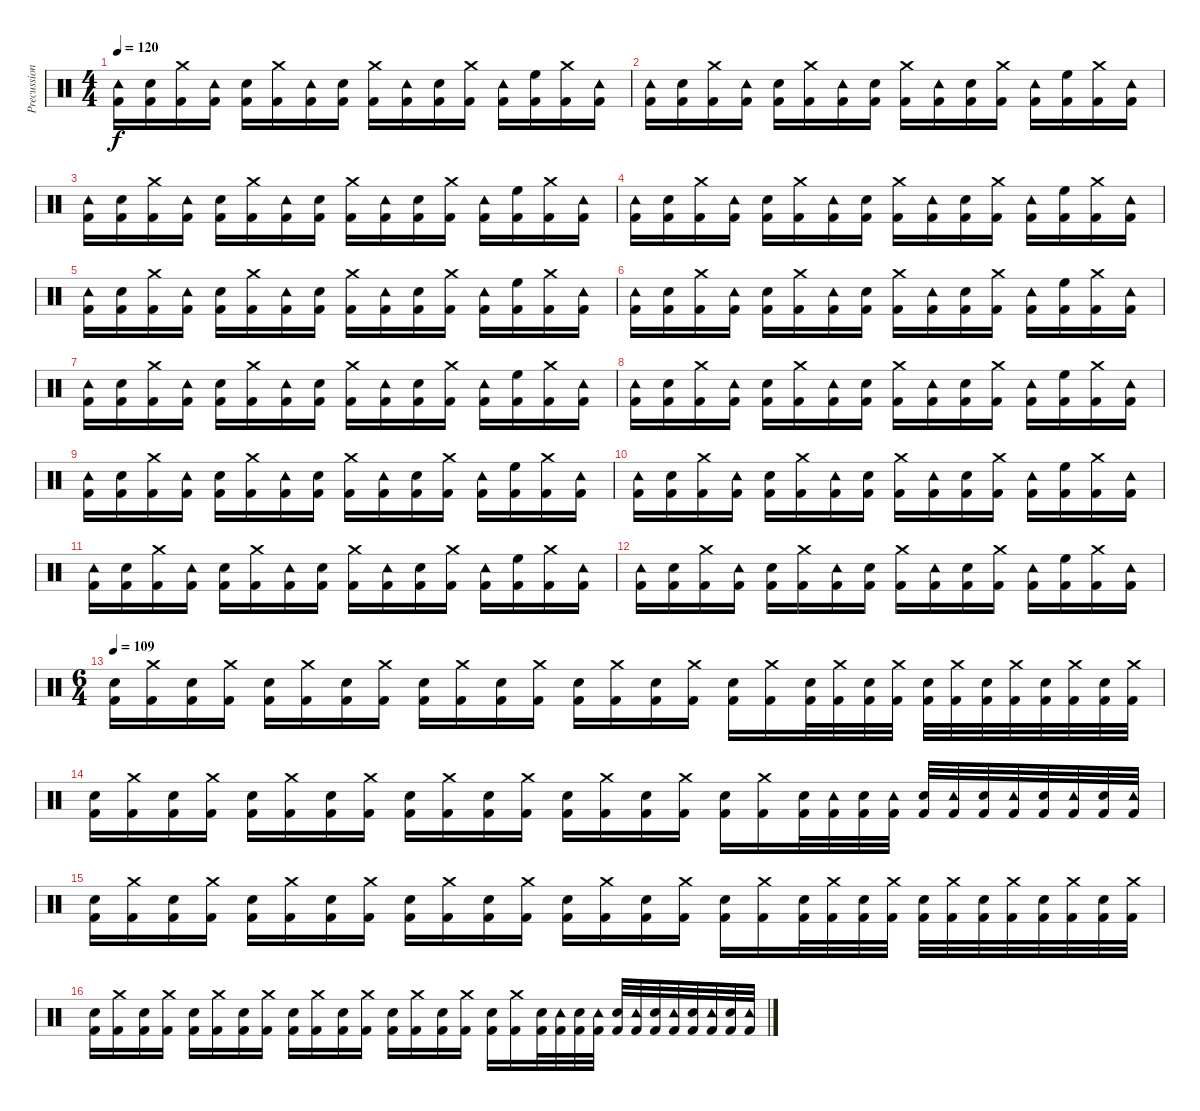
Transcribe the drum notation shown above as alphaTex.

\track ("Precussion" "Precussion") {instrument percussion}
\staff {score}
\articulation defaults
\ts (4 4)
\tempo 120
\clef neutral
\ks c
("Tambourine (hit)" "Kick (hit) 2").16{dy f} ("Electric Snare (hit)" "Kick (hit) 2").16 ("Crash medium (hit)" "Kick (hit) 2").16 ("Tambourine (hit)" "Kick (hit) 2").16 ("Electric Snare (hit)" "Kick (hit) 2").16 ("Crash medium (hit)" "Kick (hit) 2").16 ("Tambourine (hit)" "Kick (hit) 2").16 ("Electric Snare (hit)" "Kick (hit) 2").16 ("Crash medium (hit)" "Kick (hit) 2").16 ("Tambourine (hit)" "Kick (hit) 2").16 ("Electric Snare (hit)" "Kick (hit) 2").16 ("Crash medium (hit)" "Kick (hit) 2").16 ("Tambourine (hit)" "Kick (hit) 2").16 ("High Floor Tom (hit)" "Kick (hit) 2").16 ("Crash medium (hit)" "Kick (hit) 2").16 ("Tambourine (hit)" "Kick (hit) 2").16 |
("Tambourine (hit)" "Kick (hit) 2").16 ("Electric Snare (hit)" "Kick (hit) 2").16 ("Crash medium (hit)" "Kick (hit) 2").16 ("Tambourine (hit)" "Kick (hit) 2").16 ("Electric Snare (hit)" "Kick (hit) 2").16 ("Crash medium (hit)" "Kick (hit) 2").16 ("Tambourine (hit)" "Kick (hit) 2").16 ("Electric Snare (hit)" "Kick (hit) 2").16 ("Crash medium (hit)" "Kick (hit) 2").16 ("Tambourine (hit)" "Kick (hit) 2").16 ("Electric Snare (hit)" "Kick (hit) 2").16 ("Crash medium (hit)" "Kick (hit) 2").16 ("Tambourine (hit)" "Kick (hit) 2").16 ("High Floor Tom (hit)" "Kick (hit) 2").16 ("Crash medium (hit)" "Kick (hit) 2").16 ("Tambourine (hit)" "Kick (hit) 2").16 |
("Tambourine (hit)" "Kick (hit) 2").16 ("Electric Snare (hit)" "Kick (hit) 2").16 ("Crash medium (hit)" "Kick (hit) 2").16 ("Tambourine (hit)" "Kick (hit) 2").16 ("Electric Snare (hit)" "Kick (hit) 2").16 ("Crash medium (hit)" "Kick (hit) 2").16 ("Tambourine (hit)" "Kick (hit) 2").16 ("Electric Snare (hit)" "Kick (hit) 2").16 ("Crash medium (hit)" "Kick (hit) 2").16 ("Tambourine (hit)" "Kick (hit) 2").16 ("Electric Snare (hit)" "Kick (hit) 2").16 ("Crash medium (hit)" "Kick (hit) 2").16 ("Tambourine (hit)" "Kick (hit) 2").16 ("High Floor Tom (hit)" "Kick (hit) 2").16 ("Crash medium (hit)" "Kick (hit) 2").16 ("Tambourine (hit)" "Kick (hit) 2").16 |
("Tambourine (hit)" "Kick (hit) 2").16 ("Electric Snare (hit)" "Kick (hit) 2").16 ("Crash medium (hit)" "Kick (hit) 2").16 ("Tambourine (hit)" "Kick (hit) 2").16 ("Electric Snare (hit)" "Kick (hit) 2").16 ("Crash medium (hit)" "Kick (hit) 2").16 ("Tambourine (hit)" "Kick (hit) 2").16 ("Electric Snare (hit)" "Kick (hit) 2").16 ("Crash medium (hit)" "Kick (hit) 2").16 ("Tambourine (hit)" "Kick (hit) 2").16 ("Electric Snare (hit)" "Kick (hit) 2").16 ("Crash medium (hit)" "Kick (hit) 2").16 ("Tambourine (hit)" "Kick (hit) 2").16 ("High Floor Tom (hit)" "Kick (hit) 2").16 ("Crash medium (hit)" "Kick (hit) 2").16 ("Tambourine (hit)" "Kick (hit) 2").16 |
("Tambourine (hit)" "Kick (hit) 2").16 ("Electric Snare (hit)" "Kick (hit) 2").16 ("Crash medium (hit)" "Kick (hit) 2").16 ("Tambourine (hit)" "Kick (hit) 2").16 ("Electric Snare (hit)" "Kick (hit) 2").16 ("Crash medium (hit)" "Kick (hit) 2").16 ("Tambourine (hit)" "Kick (hit) 2").16 ("Electric Snare (hit)" "Kick (hit) 2").16 ("Crash medium (hit)" "Kick (hit) 2").16 ("Tambourine (hit)" "Kick (hit) 2").16 ("Electric Snare (hit)" "Kick (hit) 2").16 ("Crash medium (hit)" "Kick (hit) 2").16 ("Tambourine (hit)" "Kick (hit) 2").16 ("High Floor Tom (hit)" "Kick (hit) 2").16 ("Crash medium (hit)" "Kick (hit) 2").16 ("Tambourine (hit)" "Kick (hit) 2").16 |
("Tambourine (hit)" "Kick (hit) 2").16 ("Electric Snare (hit)" "Kick (hit) 2").16 ("Crash medium (hit)" "Kick (hit) 2").16 ("Tambourine (hit)" "Kick (hit) 2").16 ("Electric Snare (hit)" "Kick (hit) 2").16 ("Crash medium (hit)" "Kick (hit) 2").16 ("Tambourine (hit)" "Kick (hit) 2").16 ("Electric Snare (hit)" "Kick (hit) 2").16 ("Crash medium (hit)" "Kick (hit) 2").16 ("Tambourine (hit)" "Kick (hit) 2").16 ("Electric Snare (hit)" "Kick (hit) 2").16 ("Crash medium (hit)" "Kick (hit) 2").16 ("Tambourine (hit)" "Kick (hit) 2").16 ("High Floor Tom (hit)" "Kick (hit) 2").16 ("Crash medium (hit)" "Kick (hit) 2").16 ("Tambourine (hit)" "Kick (hit) 2").16 |
("Tambourine (hit)" "Kick (hit) 2").16 ("Electric Snare (hit)" "Kick (hit) 2").16 ("Crash medium (hit)" "Kick (hit) 2").16 ("Tambourine (hit)" "Kick (hit) 2").16 ("Electric Snare (hit)" "Kick (hit) 2").16 ("Crash medium (hit)" "Kick (hit) 2").16 ("Tambourine (hit)" "Kick (hit) 2").16 ("Electric Snare (hit)" "Kick (hit) 2").16 ("Crash medium (hit)" "Kick (hit) 2").16 ("Tambourine (hit)" "Kick (hit) 2").16 ("Electric Snare (hit)" "Kick (hit) 2").16 ("Crash medium (hit)" "Kick (hit) 2").16 ("Tambourine (hit)" "Kick (hit) 2").16 ("High Floor Tom (hit)" "Kick (hit) 2").16 ("Crash medium (hit)" "Kick (hit) 2").16 ("Tambourine (hit)" "Kick (hit) 2").16 |
("Tambourine (hit)" "Kick (hit) 2").16 ("Electric Snare (hit)" "Kick (hit) 2").16 ("Crash medium (hit)" "Kick (hit) 2").16 ("Tambourine (hit)" "Kick (hit) 2").16 ("Electric Snare (hit)" "Kick (hit) 2").16 ("Crash medium (hit)" "Kick (hit) 2").16 ("Tambourine (hit)" "Kick (hit) 2").16 ("Electric Snare (hit)" "Kick (hit) 2").16 ("Crash medium (hit)" "Kick (hit) 2").16 ("Tambourine (hit)" "Kick (hit) 2").16 ("Electric Snare (hit)" "Kick (hit) 2").16 ("Crash medium (hit)" "Kick (hit) 2").16 ("Tambourine (hit)" "Kick (hit) 2").16 ("High Floor Tom (hit)" "Kick (hit) 2").16 ("Crash medium (hit)" "Kick (hit) 2").16 ("Tambourine (hit)" "Kick (hit) 2").16 |
("Tambourine (hit)" "Kick (hit) 2").16 ("Electric Snare (hit)" "Kick (hit) 2").16 ("Crash medium (hit)" "Kick (hit) 2").16 ("Tambourine (hit)" "Kick (hit) 2").16 ("Electric Snare (hit)" "Kick (hit) 2").16 ("Crash medium (hit)" "Kick (hit) 2").16 ("Tambourine (hit)" "Kick (hit) 2").16 ("Electric Snare (hit)" "Kick (hit) 2").16 ("Crash medium (hit)" "Kick (hit) 2").16 ("Tambourine (hit)" "Kick (hit) 2").16 ("Electric Snare (hit)" "Kick (hit) 2").16 ("Crash medium (hit)" "Kick (hit) 2").16 ("Tambourine (hit)" "Kick (hit) 2").16 ("High Floor Tom (hit)" "Kick (hit) 2").16 ("Crash medium (hit)" "Kick (hit) 2").16 ("Tambourine (hit)" "Kick (hit) 2").16 |
("Tambourine (hit)" "Kick (hit) 2").16 ("Electric Snare (hit)" "Kick (hit) 2").16 ("Crash medium (hit)" "Kick (hit) 2").16 ("Tambourine (hit)" "Kick (hit) 2").16 ("Electric Snare (hit)" "Kick (hit) 2").16 ("Crash medium (hit)" "Kick (hit) 2").16 ("Tambourine (hit)" "Kick (hit) 2").16 ("Electric Snare (hit)" "Kick (hit) 2").16 ("Crash medium (hit)" "Kick (hit) 2").16 ("Tambourine (hit)" "Kick (hit) 2").16 ("Electric Snare (hit)" "Kick (hit) 2").16 ("Crash medium (hit)" "Kick (hit) 2").16 ("Tambourine (hit)" "Kick (hit) 2").16 ("High Floor Tom (hit)" "Kick (hit) 2").16 ("Crash medium (hit)" "Kick (hit) 2").16 ("Tambourine (hit)" "Kick (hit) 2").16 |
("Tambourine (hit)" "Kick (hit) 2").16 ("Electric Snare (hit)" "Kick (hit) 2").16 ("Crash medium (hit)" "Kick (hit) 2").16 ("Tambourine (hit)" "Kick (hit) 2").16 ("Electric Snare (hit)" "Kick (hit) 2").16 ("Crash medium (hit)" "Kick (hit) 2").16 ("Tambourine (hit)" "Kick (hit) 2").16 ("Electric Snare (hit)" "Kick (hit) 2").16 ("Crash medium (hit)" "Kick (hit) 2").16 ("Tambourine (hit)" "Kick (hit) 2").16 ("Electric Snare (hit)" "Kick (hit) 2").16 ("Crash medium (hit)" "Kick (hit) 2").16 ("Tambourine (hit)" "Kick (hit) 2").16 ("High Floor Tom (hit)" "Kick (hit) 2").16 ("Crash medium (hit)" "Kick (hit) 2").16 ("Tambourine (hit)" "Kick (hit) 2").16 |
("Tambourine (hit)" "Kick (hit) 2").16 ("Electric Snare (hit)" "Kick (hit) 2").16 ("Crash medium (hit)" "Kick (hit) 2").16 ("Tambourine (hit)" "Kick (hit) 2").16 ("Electric Snare (hit)" "Kick (hit) 2").16 ("Crash medium (hit)" "Kick (hit) 2").16 ("Tambourine (hit)" "Kick (hit) 2").16 ("Electric Snare (hit)" "Kick (hit) 2").16 ("Crash medium (hit)" "Kick (hit) 2").16 ("Tambourine (hit)" "Kick (hit) 2").16 ("Electric Snare (hit)" "Kick (hit) 2").16 ("Crash medium (hit)" "Kick (hit) 2").16 ("Tambourine (hit)" "Kick (hit) 2").16 ("High Floor Tom (hit)" "Kick (hit) 2").16 ("Crash medium (hit)" "Kick (hit) 2").16 ("Tambourine (hit)" "Kick (hit) 2").16 |
\ts (6 4)
\tempo 109
("Electric Snare (hit)" "Kick (hit) 2").16 ("Crash medium (hit)" "Kick (hit) 2").16 ("Electric Snare (hit)" "Kick (hit) 2").16 ("Crash medium (hit)" "Kick (hit) 2").16 ("Electric Snare (hit)" "Kick (hit) 2").16 ("Crash medium (hit)" "Kick (hit) 2").16 ("Electric Snare (hit)" "Kick (hit) 2").16 ("Crash medium (hit)" "Kick (hit) 2").16 ("Electric Snare (hit)" "Kick (hit) 2").16 ("Crash medium (hit)" "Kick (hit) 2").16 ("Electric Snare (hit)" "Kick (hit) 2").16 ("Crash medium (hit)" "Kick (hit) 2").16 ("Electric Snare (hit)" "Kick (hit) 2").16 ("Crash medium (hit)" "Kick (hit) 2").16 ("Electric Snare (hit)" "Kick (hit) 2").16 ("Crash medium (hit)" "Kick (hit) 2").16 ("Electric Snare (hit)" "Kick (hit) 2").16 ("Crash medium (hit)" "Kick (hit) 2").16 ("Electric Snare (hit)" "Kick (hit) 2").32 ("Crash medium (hit)" "Kick (hit) 2").32 ("Electric Snare (hit)" "Kick (hit) 2").32 ("Crash medium (hit)" "Kick (hit) 2").32 ("Electric Snare (hit)" "Kick (hit) 2").32 ("Crash medium (hit)" "Kick (hit) 2").32 ("Electric Snare (hit)" "Kick (hit) 2").32 ("Crash medium (hit)" "Kick (hit) 2").32 ("Electric Snare (hit)" "Kick (hit) 2").32 ("Crash medium (hit)" "Kick (hit) 2").32 ("Electric Snare (hit)" "Kick (hit) 2").32 ("Crash medium (hit)" "Kick (hit) 2").32 |
("Electric Snare (hit)" "Kick (hit) 2").16 ("Crash medium (hit)" "Kick (hit) 2").16 ("Electric Snare (hit)" "Kick (hit) 2").16 ("Crash medium (hit)" "Kick (hit) 2").16 ("Electric Snare (hit)" "Kick (hit) 2").16 ("Crash medium (hit)" "Kick (hit) 2").16 ("Electric Snare (hit)" "Kick (hit) 2").16 ("Crash medium (hit)" "Kick (hit) 2").16 ("Electric Snare (hit)" "Kick (hit) 2").16 ("Crash medium (hit)" "Kick (hit) 2").16 ("Electric Snare (hit)" "Kick (hit) 2").16 ("Crash medium (hit)" "Kick (hit) 2").16 ("Electric Snare (hit)" "Kick (hit) 2").16 ("Crash medium (hit)" "Kick (hit) 2").16 ("Electric Snare (hit)" "Kick (hit) 2").16 ("Crash medium (hit)" "Kick (hit) 2").16 ("Electric Snare (hit)" "Kick (hit) 2").16 ("Crash medium (hit)" "Kick (hit) 2").16 ("Electric Snare (hit)" "Kick (hit) 2").32 ("Tambourine (hit)" "Kick (hit) 2").32 ("Electric Snare (hit)" "Kick (hit) 2").32 ("Tambourine (hit)" "Kick (hit) 2").32 ("Electric Snare (hit)" "Kick (hit) 2").32 ("Tambourine (hit)" "Kick (hit) 2").32 ("Electric Snare (hit)" "Kick (hit) 2").32 ("Tambourine (hit)" "Kick (hit) 2").32 ("Electric Snare (hit)" "Kick (hit) 2").32 ("Tambourine (hit)" "Kick (hit) 2").32 ("Electric Snare (hit)" "Kick (hit) 2").32 ("Tambourine (hit)" "Kick (hit) 2").32 |
("Electric Snare (hit)" "Kick (hit) 2").16 ("Crash medium (hit)" "Kick (hit) 2").16 ("Electric Snare (hit)" "Kick (hit) 2").16 ("Crash medium (hit)" "Kick (hit) 2").16 ("Electric Snare (hit)" "Kick (hit) 2").16 ("Crash medium (hit)" "Kick (hit) 2").16 ("Electric Snare (hit)" "Kick (hit) 2").16 ("Crash medium (hit)" "Kick (hit) 2").16 ("Electric Snare (hit)" "Kick (hit) 2").16 ("Crash medium (hit)" "Kick (hit) 2").16 ("Electric Snare (hit)" "Kick (hit) 2").16 ("Crash medium (hit)" "Kick (hit) 2").16 ("Electric Snare (hit)" "Kick (hit) 2").16 ("Crash medium (hit)" "Kick (hit) 2").16 ("Electric Snare (hit)" "Kick (hit) 2").16 ("Crash medium (hit)" "Kick (hit) 2").16 ("Electric Snare (hit)" "Kick (hit) 2").16 ("Crash medium (hit)" "Kick (hit) 2").16 ("Electric Snare (hit)" "Kick (hit) 2").32 ("Crash medium (hit)" "Kick (hit) 2").32 ("Electric Snare (hit)" "Kick (hit) 2").32 ("Crash medium (hit)" "Kick (hit) 2").32 ("Electric Snare (hit)" "Kick (hit) 2").32 ("Crash medium (hit)" "Kick (hit) 2").32 ("Electric Snare (hit)" "Kick (hit) 2").32 ("Crash medium (hit)" "Kick (hit) 2").32 ("Electric Snare (hit)" "Kick (hit) 2").32 ("Crash medium (hit)" "Kick (hit) 2").32 ("Electric Snare (hit)" "Kick (hit) 2").32 ("Crash medium (hit)" "Kick (hit) 2").32 |
("Electric Snare (hit)" "Kick (hit) 2").16 ("Crash medium (hit)" "Kick (hit) 2").16 ("Electric Snare (hit)" "Kick (hit) 2").16 ("Crash medium (hit)" "Kick (hit) 2").16 ("Electric Snare (hit)" "Kick (hit) 2").16 ("Crash medium (hit)" "Kick (hit) 2").16 ("Electric Snare (hit)" "Kick (hit) 2").16 ("Crash medium (hit)" "Kick (hit) 2").16 ("Electric Snare (hit)" "Kick (hit) 2").16 ("Crash medium (hit)" "Kick (hit) 2").16 ("Electric Snare (hit)" "Kick (hit) 2").16 ("Crash medium (hit)" "Kick (hit) 2").16 ("Electric Snare (hit)" "Kick (hit) 2").16 ("Crash medium (hit)" "Kick (hit) 2").16 ("Electric Snare (hit)" "Kick (hit) 2").16 ("Crash medium (hit)" "Kick (hit) 2").16 ("Electric Snare (hit)" "Kick (hit) 2").16 ("Crash medium (hit)" "Kick (hit) 2").16 ("Electric Snare (hit)" "Kick (hit) 2").32 ("Tambourine (hit)" "Kick (hit) 2").32 ("Electric Snare (hit)" "Kick (hit) 2").32 ("Tambourine (hit)" "Kick (hit) 2").32 ("Electric Snare (hit)" "Kick (hit) 2").32 ("Tambourine (hit)" "Kick (hit) 2").32 ("Electric Snare (hit)" "Kick (hit) 2").32 ("Tambourine (hit)" "Kick (hit) 2").32 ("Electric Snare (hit)" "Kick (hit) 2").32 ("Tambourine (hit)" "Kick (hit) 2").32 ("Electric Snare (hit)" "Kick (hit) 2").32 ("Tambourine (hit)" "Kick (hit) 2").32
